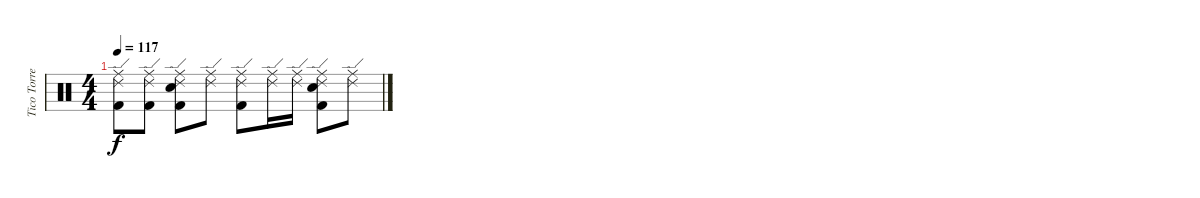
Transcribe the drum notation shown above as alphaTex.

\track ("Tico Torres" "Tico Torre") {instrument percussion}
\staff {score}
\articulation defaults
\ts (4 4)
\tempo 117
\clef neutral
\ks c
("Ride (middle)" "Ride (edge) 2" "Kick (hit) 2").8{dy f} ("Ride (middle)" "Ride (edge) 2" "Kick (hit) 2").8 ("Ride (middle)" "Ride (edge) 2" "Electric Snare (hit)" "Kick (hit) 2").8 ("Ride (middle)" "Ride (edge) 2").8 ("Ride (middle)" "Ride (edge) 2" "Kick (hit) 2").8 ("Ride (middle)" "Ride (edge) 2").16 ("Ride (middle)" "Ride (edge) 2").16 ("Ride (middle)" "Ride (edge) 2" "Electric Snare (hit)" "Kick (hit) 2").8 ("Ride (middle)" "Ride (edge) 2").8
